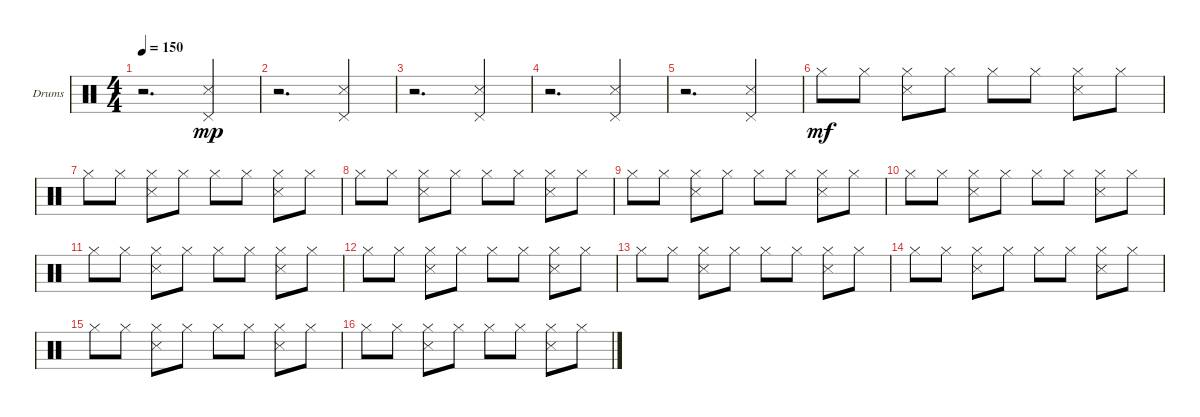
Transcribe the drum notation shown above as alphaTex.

\defaultSystemsLayout 4
\bracketExtendMode groupsimilarinstruments
\firstSystemTrackNameOrientation horizontal
\otherSystemsTrackNameOrientation horizontal
\track ("Drums" "Drums") {instrument percussion}
\staff {score}
\articulation defaults
\ts (4 4)
\tempo 150
\clef neutral
\ks c
r.2{d dy mp} ("Snare (side stick) 3" "Pedal Hi-Hat (hit)").4 |
r.2{d} ("Snare (side stick) 3" "Pedal Hi-Hat (hit)").4 |
r.2{d} ("Snare (side stick) 3" "Pedal Hi-Hat (hit)").4 |
r.2{d} ("Snare (side stick) 3" "Pedal Hi-Hat (hit)").4 |
r.2{d} ("Snare (side stick) 3" "Pedal Hi-Hat (hit)").4 |
"Hi-Hat (closed)".8{dy mf} "Hi-Hat (closed)".8 ("Hi-Hat (closed)" "Snare (side stick) 3").8 "Hi-Hat (closed)".8 "Hi-Hat (closed)".8 "Hi-Hat (closed)".8 ("Hi-Hat (closed)" "Snare (side stick) 3").8 "Hi-Hat (closed)".8 |
"Hi-Hat (closed)".8 "Hi-Hat (closed)".8 ("Hi-Hat (closed)" "Snare (side stick) 3").8 "Hi-Hat (closed)".8 "Hi-Hat (closed)".8 "Hi-Hat (closed)".8 ("Hi-Hat (closed)" "Snare (side stick) 3").8 "Hi-Hat (closed)".8 |
"Hi-Hat (closed)".8 "Hi-Hat (closed)".8 ("Hi-Hat (closed)" "Snare (side stick) 3").8 "Hi-Hat (closed)".8 "Hi-Hat (closed)".8 "Hi-Hat (closed)".8 ("Hi-Hat (closed)" "Snare (side stick) 3").8 "Hi-Hat (closed)".8 |
"Hi-Hat (closed)".8 "Hi-Hat (closed)".8 ("Hi-Hat (closed)" "Snare (side stick) 3").8 "Hi-Hat (closed)".8 "Hi-Hat (closed)".8 "Hi-Hat (closed)".8 ("Hi-Hat (closed)" "Snare (side stick) 3").8 "Hi-Hat (closed)".8 |
"Hi-Hat (closed)".8 "Hi-Hat (closed)".8 ("Hi-Hat (closed)" "Snare (side stick) 3").8 "Hi-Hat (closed)".8 "Hi-Hat (closed)".8 "Hi-Hat (closed)".8 ("Hi-Hat (closed)" "Snare (side stick) 3").8 "Hi-Hat (closed)".8 |
"Hi-Hat (closed)".8 "Hi-Hat (closed)".8 ("Hi-Hat (closed)" "Snare (side stick) 3").8 "Hi-Hat (closed)".8 "Hi-Hat (closed)".8 "Hi-Hat (closed)".8 ("Hi-Hat (closed)" "Snare (side stick) 3").8 "Hi-Hat (closed)".8 |
"Hi-Hat (closed)".8 "Hi-Hat (closed)".8 ("Hi-Hat (closed)" "Snare (side stick) 3").8 "Hi-Hat (closed)".8 "Hi-Hat (closed)".8 "Hi-Hat (closed)".8 ("Hi-Hat (closed)" "Snare (side stick) 3").8 "Hi-Hat (closed)".8 |
"Hi-Hat (closed)".8 "Hi-Hat (closed)".8 ("Hi-Hat (closed)" "Snare (side stick) 3").8 "Hi-Hat (closed)".8 "Hi-Hat (closed)".8 "Hi-Hat (closed)".8 ("Hi-Hat (closed)" "Snare (side stick) 3").8 "Hi-Hat (closed)".8 |
"Hi-Hat (closed)".8 "Hi-Hat (closed)".8 ("Hi-Hat (closed)" "Snare (side stick) 3").8 "Hi-Hat (closed)".8 "Hi-Hat (closed)".8 "Hi-Hat (closed)".8 ("Hi-Hat (closed)" "Snare (side stick) 3").8 "Hi-Hat (closed)".8 |
"Hi-Hat (closed)".8 "Hi-Hat (closed)".8 ("Hi-Hat (closed)" "Snare (side stick) 3").8 "Hi-Hat (closed)".8 "Hi-Hat (closed)".8 "Hi-Hat (closed)".8 ("Hi-Hat (closed)" "Snare (side stick) 3").8 "Hi-Hat (closed)".8 |
"Hi-Hat (closed)".8 "Hi-Hat (closed)".8 ("Hi-Hat (closed)" "Snare (side stick) 3").8 "Hi-Hat (closed)".8 "Hi-Hat (closed)".8 "Hi-Hat (closed)".8 ("Hi-Hat (closed)" "Snare (side stick) 3").8 "Hi-Hat (closed)".8
